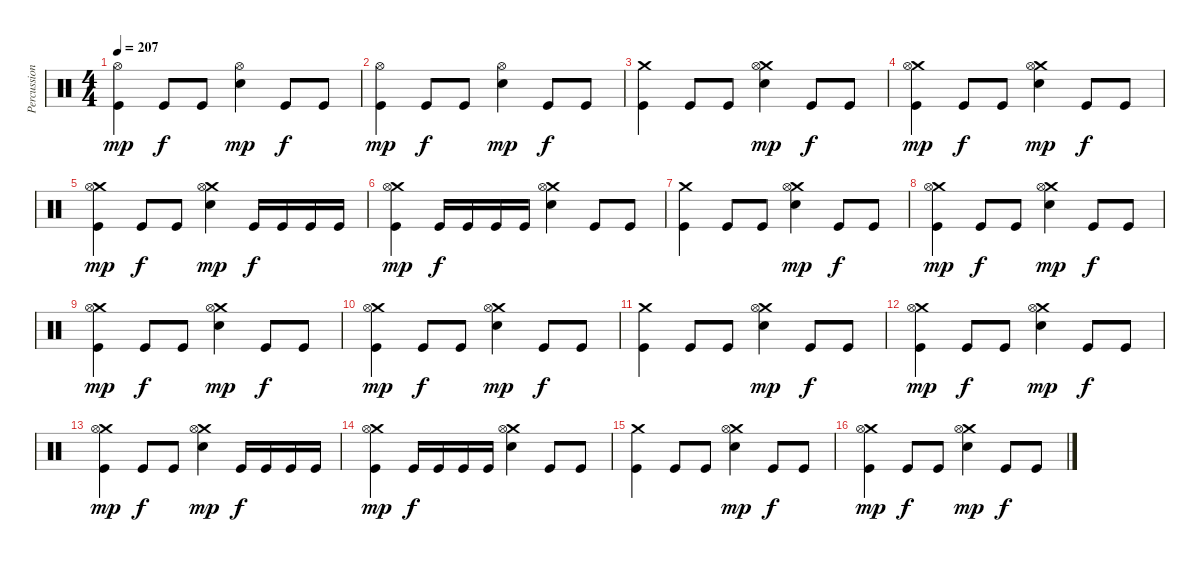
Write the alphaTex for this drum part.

\track ("Percussion" "Percussion") {instrument percussion}
\staff {score}
\articulation defaults
\ts (4 4)
\tempo 207
\clef neutral
\ks c
("Hi-Hat (open)" "Kick (hit)").4{dy mp} "Kick (hit)".8{dy f} "Kick (hit)".8 ("Hi-Hat (open)" "Electric Snare (hit)").4{dy mp} "Kick (hit)".8{dy f} "Kick (hit)".8 |
("Hi-Hat (open)" "Kick (hit)").4{dy mp} "Kick (hit)".8{dy f} "Kick (hit)".8 ("Hi-Hat (open)" "Electric Snare (hit)").4{dy mp} "Kick (hit)".8{dy f} "Kick (hit)".8 |
("Crash medium (hit)" "Kick (hit)").4 "Kick (hit)".8 "Kick (hit)".8 ("Crash medium (hit)" "Hi-Hat (open)" "Electric Snare (hit)").4{dy mp} "Kick (hit)".8{dy f} "Kick (hit)".8 |
("Crash medium (hit)" "Hi-Hat (open)" "Kick (hit)").4{dy mp} "Kick (hit)".8{dy f} "Kick (hit)".8 ("Crash medium (hit)" "Hi-Hat (open)" "Electric Snare (hit)").4{dy mp} "Kick (hit)".8{dy f} "Kick (hit)".8 |
("Crash medium (hit)" "Hi-Hat (open)" "Kick (hit)").4{dy mp} "Kick (hit)".8{dy f} "Kick (hit)".8 ("Crash medium (hit)" "Hi-Hat (open)" "Electric Snare (hit)").4{dy mp} "Kick (hit)".16{dy f} "Kick (hit)".16 "Kick (hit)".16 "Kick (hit)".16 |
("Crash medium (hit)" "Hi-Hat (open)" "Kick (hit)").4{dy mp} "Kick (hit)".16{dy f} "Kick (hit)".16 "Kick (hit)".16 "Kick (hit)".16 ("Crash medium (hit)" "Hi-Hat (open)" "Electric Snare (hit)").4 "Kick (hit)".8 "Kick (hit)".8 |
("Crash medium (hit)" "Kick (hit)").4 "Kick (hit)".8 "Kick (hit)".8 ("Crash medium (hit)" "Hi-Hat (open)" "Electric Snare (hit)").4{dy mp} "Kick (hit)".8{dy f} "Kick (hit)".8 |
("Crash medium (hit)" "Hi-Hat (open)" "Kick (hit)").4{dy mp} "Kick (hit)".8{dy f} "Kick (hit)".8 ("Crash medium (hit)" "Hi-Hat (open)" "Electric Snare (hit)").4{dy mp} "Kick (hit)".8{dy f} "Kick (hit)".8 |
("Crash medium (hit)" "Hi-Hat (open)" "Kick (hit)").4{dy mp} "Kick (hit)".8{dy f} "Kick (hit)".8 ("Crash medium (hit)" "Hi-Hat (open)" "Electric Snare (hit)").4{dy mp} "Kick (hit)".8{dy f} "Kick (hit)".8 |
("Crash medium (hit)" "Hi-Hat (open)" "Kick (hit)").4{dy mp} "Kick (hit)".8{dy f} "Kick (hit)".8 ("Crash medium (hit)" "Hi-Hat (open)" "Electric Snare (hit)").4{dy mp} "Kick (hit)".8{dy f} "Kick (hit)".8 |
("Crash medium (hit)" "Kick (hit)").4 "Kick (hit)".8 "Kick (hit)".8 ("Crash medium (hit)" "Hi-Hat (open)" "Electric Snare (hit)").4{dy mp} "Kick (hit)".8{dy f} "Kick (hit)".8 |
("Crash medium (hit)" "Hi-Hat (open)" "Kick (hit)").4{dy mp} "Kick (hit)".8{dy f} "Kick (hit)".8 ("Crash medium (hit)" "Hi-Hat (open)" "Electric Snare (hit)").4{dy mp} "Kick (hit)".8{dy f} "Kick (hit)".8 |
("Crash medium (hit)" "Hi-Hat (open)" "Kick (hit)").4{dy mp} "Kick (hit)".8{dy f} "Kick (hit)".8 ("Crash medium (hit)" "Hi-Hat (open)" "Electric Snare (hit)").4{dy mp} "Kick (hit)".16{dy f} "Kick (hit)".16 "Kick (hit)".16 "Kick (hit)".16 |
("Crash medium (hit)" "Hi-Hat (open)" "Kick (hit)").4{dy mp} "Kick (hit)".16{dy f} "Kick (hit)".16 "Kick (hit)".16 "Kick (hit)".16 ("Crash medium (hit)" "Hi-Hat (open)" "Electric Snare (hit)").4 "Kick (hit)".8 "Kick (hit)".8 |
("Crash medium (hit)" "Kick (hit)").4 "Kick (hit)".8 "Kick (hit)".8 ("Crash medium (hit)" "Hi-Hat (open)" "Electric Snare (hit)").4{dy mp} "Kick (hit)".8{dy f} "Kick (hit)".8 |
("Crash medium (hit)" "Hi-Hat (open)" "Kick (hit)").4{dy mp} "Kick (hit)".8{dy f} "Kick (hit)".8 ("Crash medium (hit)" "Hi-Hat (open)" "Electric Snare (hit)").4{dy mp} "Kick (hit)".8{dy f} "Kick (hit)".8
